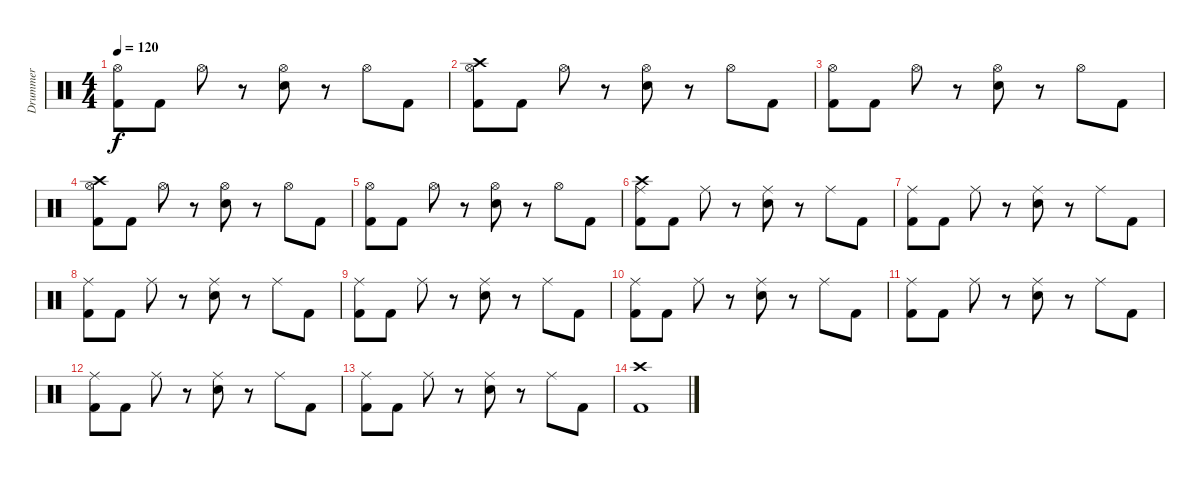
\track ("Drummer" "Drummer") {instrument percussion}
\staff {score}
\articulation defaults
\ts (4 4)
\tempo 120
\clef neutral
\ks c
("Hi-Hat (open)" "Kick (hit) 2").8{dy f} "Kick (hit) 2".8 "Hi-Hat (open)".8 r.8 ("Hi-Hat (open)" "Snare (hit) 2").8 r.8 "Hi-Hat (open)".8 "Kick (hit) 2".8 |
("Crash high (hit)" "Hi-Hat (open)" "Kick (hit) 2").8 "Kick (hit) 2".8 "Hi-Hat (open)".8 r.8 ("Hi-Hat (open)" "Snare (hit) 2").8 r.8 "Hi-Hat (open)".8 "Kick (hit) 2".8 |
("Hi-Hat (open)" "Kick (hit) 2").8 "Kick (hit) 2".8 "Hi-Hat (open)".8 r.8 ("Hi-Hat (open)" "Snare (hit) 2").8 r.8 "Hi-Hat (open)".8 "Kick (hit) 2".8 |
("Crash high (hit)" "Hi-Hat (open)" "Kick (hit) 2").8 "Kick (hit) 2".8 "Hi-Hat (open)".8 r.8 ("Hi-Hat (open)" "Snare (hit) 2").8 r.8 "Hi-Hat (open)".8 "Kick (hit) 2".8 |
("Hi-Hat (open)" "Kick (hit) 2").8 "Kick (hit) 2".8 "Hi-Hat (open)".8 r.8 ("Hi-Hat (open)" "Snare (hit) 2").8 r.8 "Hi-Hat (open)".8 "Kick (hit) 2".8 |
("Crash high (hit)" "Ride (middle)" "Kick (hit) 2").8 "Kick (hit) 2".8 "Ride (middle)".8 r.8 ("Ride (middle)" "Snare (hit) 2").8 r.8 "Ride (middle)".8 "Kick (hit) 2".8 |
("Ride (middle)" "Kick (hit) 2").8 "Kick (hit) 2".8 "Ride (middle)".8 r.8 ("Ride (middle)" "Snare (hit) 2").8 r.8 "Ride (middle)".8 "Kick (hit) 2".8 |
("Ride (middle)" "Kick (hit) 2").8 "Kick (hit) 2".8 "Ride (middle)".8 r.8 ("Ride (middle)" "Snare (hit) 2").8 r.8 "Ride (middle)".8 "Kick (hit) 2".8 |
("Ride (middle)" "Kick (hit) 2").8 "Kick (hit) 2".8 "Ride (middle)".8 r.8 ("Ride (middle)" "Snare (hit) 2").8 r.8 "Ride (middle)".8 "Kick (hit) 2".8 |
("Ride (middle)" "Kick (hit) 2").8 "Kick (hit) 2".8 "Ride (middle)".8 r.8 ("Ride (middle)" "Snare (hit) 2").8 r.8 "Ride (middle)".8 "Kick (hit) 2".8 |
("Ride (middle)" "Kick (hit) 2").8 "Kick (hit) 2".8 "Ride (middle)".8 r.8 ("Ride (middle)" "Snare (hit) 2").8 r.8 "Ride (middle)".8 "Kick (hit) 2".8 |
("Ride (middle)" "Kick (hit) 2").8 "Kick (hit) 2".8 "Ride (middle)".8 r.8 ("Ride (middle)" "Snare (hit) 2").8 r.8 "Ride (middle)".8 "Kick (hit) 2".8 |
("Ride (middle)" "Kick (hit) 2").8 "Kick (hit) 2".8 "Ride (middle)".8 r.8 ("Ride (middle)" "Snare (hit) 2").8 r.8 "Ride (middle)".8 "Kick (hit) 2".8 |
("Crash high (hit)" "Kick (hit) 2").1
